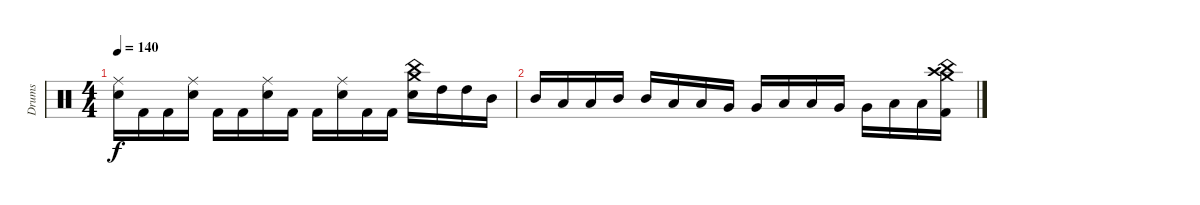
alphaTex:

\track ("Drums" "Drums") {instrument percussion}
\staff {score}
\articulation defaults
\ts (4 4)
\tempo 140
\clef neutral
\ks c
("Ride (middle)" "Snare (hit) 2").16{dy f} "Kick (hit) 2".16 "Kick (hit) 2".16 ("Ride (middle)" "Snare (hit) 2").16 "Kick (hit) 2".16 "Kick (hit) 2".16 ("Ride (middle)" "Snare (hit) 2").16 "Kick (hit) 2".16 "Kick (hit) 2".16 ("Ride (middle)" "Snare (hit) 2").16 "Kick (hit) 2".16 "Kick (hit) 2".16 ("Crash medium (hit)" "China (hit)" "Snare (hit) 2").16 "High Tom (hit)".16 "High Tom (hit)".16 "Mid Tom (hit)".16 |
"Mid Tom (hit)".16 "Low Tom (hit)".16 "Low Tom (hit)".16 "Mid Tom (hit)".16 "Mid Tom (hit)".16 "Low Tom (hit)".16 "Low Tom (hit)".16 "Very Low Tom (hit)".16 "Very Low Tom (hit)".16 "Low Tom (hit)".16 "Low Tom (hit)".16 "Very Low Tom (hit)".16 "Very Low Tom (hit)".16 "Low Floor Tom (hit)".16 "Low Floor Tom (hit)".16 ("Crash high (hit)" "China (hit)" "Crash medium (hit)" "Kick (hit) 2").16
